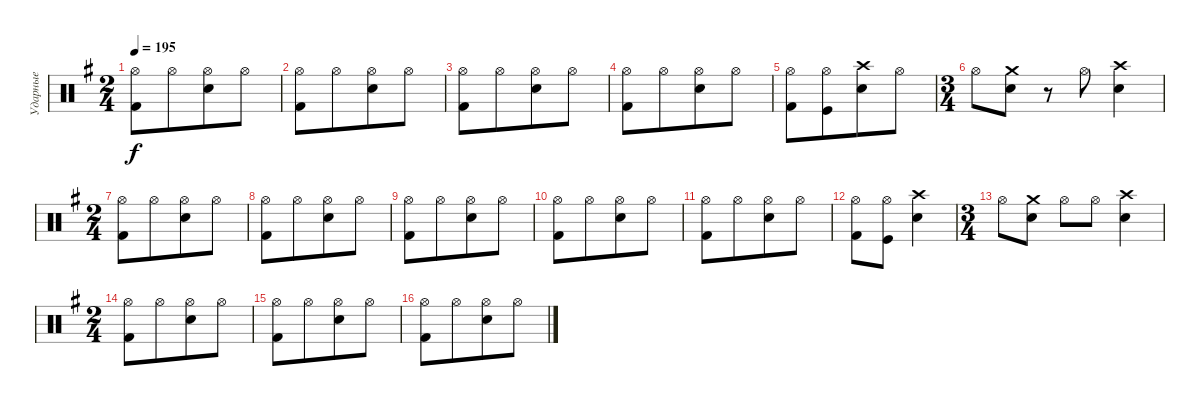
\track ("Ударные" "Ударные") {instrument percussion}
\staff {score}
\articulation defaults
\ts (2 4)
\tempo 195
\clef neutral
\ks eminor
("Kick (hit) 2" "Hi-Hat (open)").8{dy f} "Hi-Hat (open)".8{beam merge} ("Snare (hit) 2" "Hi-Hat (open)").8 "Hi-Hat (open)".8 |
("Kick (hit) 2" "Hi-Hat (open)").8 "Hi-Hat (open)".8{beam merge} ("Snare (hit) 2" "Hi-Hat (open)").8 "Hi-Hat (open)".8 |
("Kick (hit) 2" "Hi-Hat (open)").8 "Hi-Hat (open)".8{beam merge} ("Snare (hit) 2" "Hi-Hat (open)").8 "Hi-Hat (open)".8 |
("Kick (hit) 2" "Hi-Hat (open)").8 "Hi-Hat (open)".8{beam merge} ("Snare (hit) 2" "Hi-Hat (open)").8 "Hi-Hat (open)".8 |
("Kick (hit) 2" "Hi-Hat (open)").8 ("Hi-Hat (open)" "Kick (hit)").8{beam merge} ("Snare (hit) 2" "Crash high (hit)").8 "Hi-Hat (open)".8 |
\ts (3 4)
"Hi-Hat (open)".8 ("Snare (hit) 2" "Crash medium (hit)").8 r.8 "Hi-Hat (open)".8 ("Snare (hit) 2" "Crash high (hit)").4 |
\ts (2 4)
("Kick (hit) 2" "Hi-Hat (open)").8 "Hi-Hat (open)".8{beam merge} ("Snare (hit) 2" "Hi-Hat (open)").8 "Hi-Hat (open)".8 |
("Kick (hit) 2" "Hi-Hat (open)").8 "Hi-Hat (open)".8{beam merge} ("Snare (hit) 2" "Hi-Hat (open)").8 "Hi-Hat (open)".8 |
("Kick (hit) 2" "Hi-Hat (open)").8 "Hi-Hat (open)".8{beam merge} ("Snare (hit) 2" "Hi-Hat (open)").8 "Hi-Hat (open)".8 |
("Kick (hit) 2" "Hi-Hat (open)").8 "Hi-Hat (open)".8{beam merge} ("Snare (hit) 2" "Hi-Hat (open)").8 "Hi-Hat (open)".8 |
("Kick (hit) 2" "Hi-Hat (open)").8 "Hi-Hat (open)".8{beam merge} ("Snare (hit) 2" "Hi-Hat (open)").8 "Hi-Hat (open)".8 |
("Kick (hit) 2" "Hi-Hat (open)").8 ("Hi-Hat (open)" "Kick (hit)").8 ("Snare (hit) 2" "Crash high (hit)").4 |
\ts (3 4)
"Hi-Hat (open)".8 ("Snare (hit) 2" "Crash medium (hit)").8 "Hi-Hat (open)".8 "Hi-Hat (open)".8 ("Snare (hit) 2" "Crash high (hit)").4 |
\ts (2 4)
("Kick (hit) 2" "Hi-Hat (open)").8 "Hi-Hat (open)".8{beam merge} ("Snare (hit) 2" "Hi-Hat (open)").8 "Hi-Hat (open)".8 |
("Kick (hit) 2" "Hi-Hat (open)").8 "Hi-Hat (open)".8{beam merge} ("Snare (hit) 2" "Hi-Hat (open)").8 "Hi-Hat (open)".8 |
("Kick (hit) 2" "Hi-Hat (open)").8 "Hi-Hat (open)".8{beam merge} ("Snare (hit) 2" "Hi-Hat (open)").8 "Hi-Hat (open)".8
